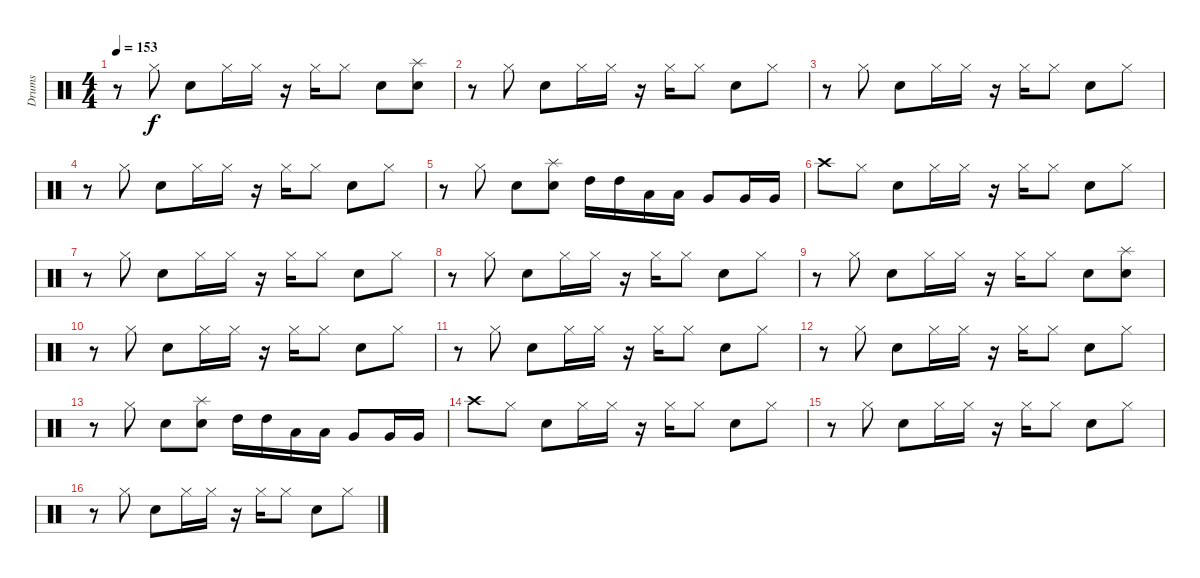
\track ("Drums" "Drums") {instrument percussion}
\staff {score}
\articulation defaults
\ts (4 4)
\tempo 153
\clef neutral
\ks c
r.8{dy f} "Hi-Hat (closed)".8 "Snare (hit) 2".8 "Hi-Hat (closed)".16 "Hi-Hat (closed)".16 r.16 "Hi-Hat (closed)".16 "Hi-Hat (closed)".8 "Snare (hit) 2".8 ("Splash (hit)" "Snare (hit) 2").8 |
r.8 "Hi-Hat (closed)".8 "Snare (hit) 2".8 "Hi-Hat (closed)".16 "Hi-Hat (closed)".16 r.16 "Hi-Hat (closed)".16 "Hi-Hat (closed)".8 "Snare (hit) 2".8 "Hi-Hat (closed)".8 |
r.8 "Hi-Hat (closed)".8 "Snare (hit) 2".8 "Hi-Hat (closed)".16 "Hi-Hat (closed)".16 r.16 "Hi-Hat (closed)".16 "Hi-Hat (closed)".8 "Snare (hit) 2".8 "Hi-Hat (closed)".8 |
r.8 "Hi-Hat (closed)".8 "Snare (hit) 2".8 "Hi-Hat (closed)".16 "Hi-Hat (closed)".16 r.16 "Hi-Hat (closed)".16 "Hi-Hat (closed)".8 "Snare (hit) 2".8 "Hi-Hat (closed)".8 |
r.8 "Hi-Hat (closed)".8 "Snare (hit) 2".8 ("Splash (hit)" "Snare (hit) 2").8 "High Tom (hit)".16 "High Tom (hit)".16 "Low Tom (hit)".16 "Low Tom (hit)".16 "Very Low Tom (hit)".8 "Very Low Tom (hit)".16 "Very Low Tom (hit)".16 |
"Crash high (hit)".8 "Hi-Hat (closed)".8 "Snare (hit) 2".8 "Hi-Hat (closed)".16 "Hi-Hat (closed)".16 r.16 "Hi-Hat (closed)".16 "Hi-Hat (closed)".8 "Snare (hit) 2".8 "Hi-Hat (closed)".8 |
r.8 "Hi-Hat (closed)".8 "Snare (hit) 2".8 "Hi-Hat (closed)".16 "Hi-Hat (closed)".16 r.16 "Hi-Hat (closed)".16 "Hi-Hat (closed)".8 "Snare (hit) 2".8 "Hi-Hat (closed)".8 |
r.8 "Hi-Hat (closed)".8 "Snare (hit) 2".8 "Hi-Hat (closed)".16 "Hi-Hat (closed)".16 r.16 "Hi-Hat (closed)".16 "Hi-Hat (closed)".8 "Snare (hit) 2".8 "Hi-Hat (closed)".8 |
r.8 "Hi-Hat (closed)".8 "Snare (hit) 2".8 "Hi-Hat (closed)".16 "Hi-Hat (closed)".16 r.16 "Hi-Hat (closed)".16 "Hi-Hat (closed)".8 "Snare (hit) 2".8 ("Splash (hit)" "Snare (hit) 2").8 |
r.8 "Hi-Hat (closed)".8 "Snare (hit) 2".8 "Hi-Hat (closed)".16 "Hi-Hat (closed)".16 r.16 "Hi-Hat (closed)".16 "Hi-Hat (closed)".8 "Snare (hit) 2".8 "Hi-Hat (closed)".8 |
r.8 "Hi-Hat (closed)".8 "Snare (hit) 2".8 "Hi-Hat (closed)".16 "Hi-Hat (closed)".16 r.16 "Hi-Hat (closed)".16 "Hi-Hat (closed)".8 "Snare (hit) 2".8 "Hi-Hat (closed)".8 |
r.8 "Hi-Hat (closed)".8 "Snare (hit) 2".8 "Hi-Hat (closed)".16 "Hi-Hat (closed)".16 r.16 "Hi-Hat (closed)".16 "Hi-Hat (closed)".8 "Snare (hit) 2".8 "Hi-Hat (closed)".8 |
r.8 "Hi-Hat (closed)".8 "Snare (hit) 2".8 ("Splash (hit)" "Snare (hit) 2").8 "High Tom (hit)".16 "High Tom (hit)".16 "Low Tom (hit)".16 "Low Tom (hit)".16 "Very Low Tom (hit)".8 "Very Low Tom (hit)".16 "Very Low Tom (hit)".16 |
"Crash high (hit)".8 "Hi-Hat (closed)".8 "Snare (hit) 2".8 "Hi-Hat (closed)".16 "Hi-Hat (closed)".16 r.16 "Hi-Hat (closed)".16 "Hi-Hat (closed)".8 "Snare (hit) 2".8 "Hi-Hat (closed)".8 |
r.8 "Hi-Hat (closed)".8 "Snare (hit) 2".8 "Hi-Hat (closed)".16 "Hi-Hat (closed)".16 r.16 "Hi-Hat (closed)".16 "Hi-Hat (closed)".8 "Snare (hit) 2".8 "Hi-Hat (closed)".8 |
r.8 "Hi-Hat (closed)".8 "Snare (hit) 2".8 "Hi-Hat (closed)".16 "Hi-Hat (closed)".16 r.16 "Hi-Hat (closed)".16 "Hi-Hat (closed)".8 "Snare (hit) 2".8 "Hi-Hat (closed)".8
